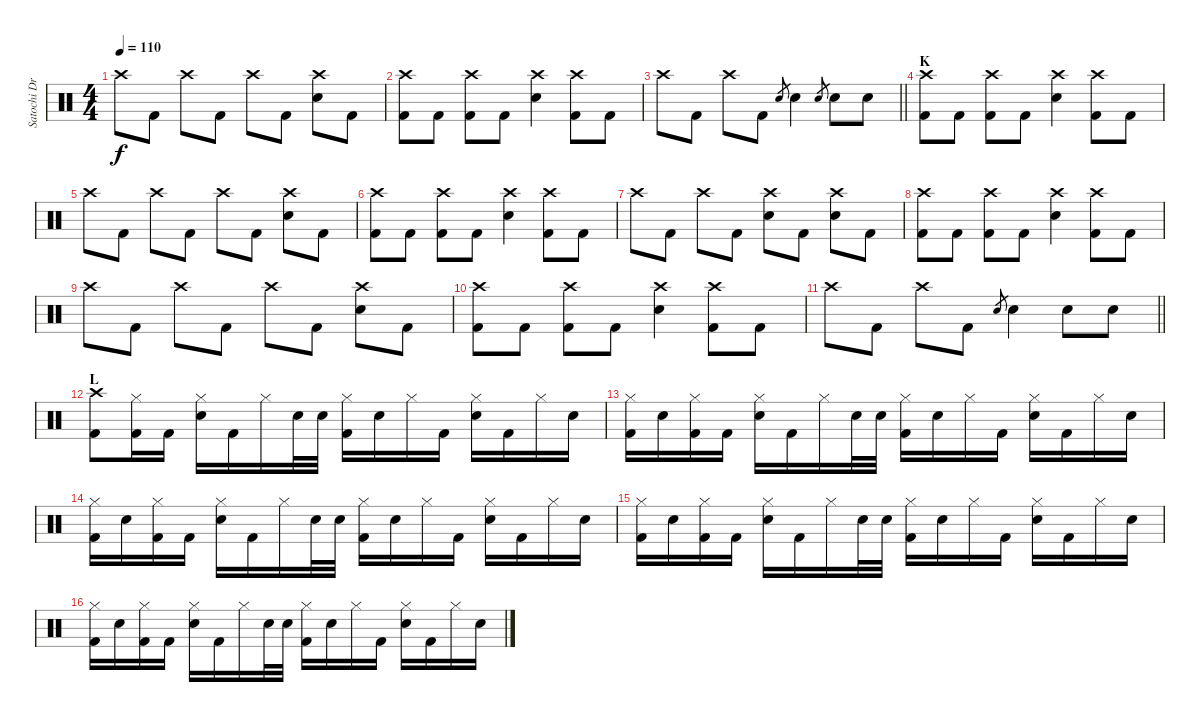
\track ("Satochi Drums" "Satochi Dr") {instrument percussion}
\staff {score}
\articulation defaults
\ts (4 4)
\tempo 110
\clef neutral
\ks c "Crash high (hit)".8{dy f} "Kick (hit) 2".8 "Crash high (hit)".8 "Kick (hit) 2".8 "Crash high (hit)".8 "Kick (hit) 2".8
("Crash high (hit)" "Snare (hit) 2").8 "Kick (hit) 2".8 |
("Crash high (hit)" "Kick (hit) 2").8 "Kick (hit) 2".8 ("Crash high (hit)" "Kick (hit) 2").8 "Kick (hit) 2".8 ("Crash high (hit)" "Snare (hit) 2").4 ("Crash high (hit)" "Kick (hit) 2").8 "Kick (hit) 2".8 |
\barLineRight lightlight "Crash high (hit)".8 "Kick (hit) 2".8 "Crash high (hit)".8 "Kick (hit) 2".8 "Snare (hit) 2".8{gr} "Snare (hit) 2".4 "Snare (hit) 2".8{gr} "Snare (hit) 2".8 "Snare (hit) 2".8
|
\section ("" "K")
("Crash high (hit)" "Kick (hit) 2").8 "Kick (hit) 2".8 ("Crash high (hit)" "Kick (hit) 2").8 "Kick (hit) 2".8 ("Crash high (hit)" "Snare (hit) 2").4 ("Crash high (hit)" "Kick (hit) 2").8 "Kick (hit) 2".8 |
"Crash high (hit)".8 "Kick (hit) 2".8 "Crash high (hit)".8 "Kick (hit) 2".8 "Crash high (hit)".8 "Kick (hit) 2".8 ("Crash high (hit)" "Snare (hit) 2").8 "Kick (hit) 2".8 |
("Crash high (hit)" "Kick (hit) 2").8 "Kick (hit) 2".8 ("Crash high (hit)" "Kick (hit) 2").8 "Kick (hit) 2".8 ("Crash high (hit)" "Snare (hit) 2").4 ("Crash high (hit)" "Kick (hit) 2").8 "Kick (hit) 2".8 |
"Crash high (hit)".8 "Kick (hit) 2".8 "Crash high (hit)".8 "Kick (hit) 2".8 ("Crash high (hit)" "Snare (hit) 2").8 "Kick (hit) 2".8 ("Crash high (hit)" "Snare (hit) 2").8 "Kick (hit) 2".8 |
("Crash high (hit)" "Kick (hit) 2").8 "Kick (hit) 2".8 ("Crash high (hit)" "Kick (hit) 2").8 "Kick (hit) 2".8 ("Crash high (hit)" "Snare (hit) 2").4 ("Crash high (hit)" "Kick (hit) 2").8 "Kick (hit) 2".8 |
"Crash high (hit)".8 "Kick (hit) 2".8 "Crash high (hit)".8 "Kick (hit) 2".8 "Crash high (hit)".8 "Kick (hit) 2".8 ("Crash high (hit)" "Snare (hit) 2").8 "Kick (hit) 2".8 |
("Crash high (hit)" "Kick (hit) 2").8 "Kick (hit) 2".8 ("Crash high (hit)" "Kick (hit) 2").8 "Kick (hit) 2".8 ("Crash high (hit)" "Snare (hit) 2").4 ("Crash high (hit)" "Kick (hit) 2").8 "Kick (hit) 2".8 |
\barLineRight lightlight "Crash high (hit)".8 "Kick (hit) 2".8 "Crash high (hit)".8 "Kick (hit) 2".8 "Snare (hit) 2".8{gr} "Snare (hit) 2".4 "Snare (hit) 2".8 "Snare (hit) 2".8
|
\section ("" "L")
("Crash high (hit)" "Kick (hit) 2").8 ("Hi-Hat (closed)" "Kick (hit) 2").16 "Kick (hit) 2".16 ("Hi-Hat (closed)" "Snare (hit) 2").16 "Kick (hit) 2".16 "Hi-Hat (closed)".16 "Snare (hit) 2".32 "Snare (hit) 2".32 ("Hi-Hat (closed)" "Kick (hit) 2").16 "Snare (hit) 2".16 "Hi-Hat (closed)".16 "Kick (hit) 2".16 ("Hi-Hat (closed)" "Snare (hit) 2").16 "Kick (hit) 2".16 "Hi-Hat (closed)".16 "Snare (hit) 2".16 |
("Hi-Hat (closed)" "Kick (hit) 2").16 "Snare (hit) 2".16 ("Hi-Hat (closed)" "Kick (hit) 2").16 "Kick (hit) 2".16 ("Hi-Hat (closed)" "Snare (hit) 2").16 "Kick (hit) 2".16 "Hi-Hat (closed)".16 "Snare (hit) 2".32 "Snare (hit) 2".32 ("Hi-Hat (closed)" "Kick (hit) 2").16 "Snare (hit) 2".16 "Hi-Hat (closed)".16 "Kick (hit) 2".16 ("Hi-Hat (closed)" "Snare (hit) 2").16 "Kick (hit) 2".16 "Hi-Hat (closed)".16 "Snare (hit) 2".16 |
("Hi-Hat (closed)" "Kick (hit) 2").16 "Snare (hit) 2".16 ("Hi-Hat (closed)" "Kick (hit) 2").16 "Kick (hit) 2".16 ("Hi-Hat (closed)" "Snare (hit) 2").16 "Kick (hit) 2".16 "Hi-Hat (closed)".16 "Snare (hit) 2".32 "Snare (hit) 2".32 ("Hi-Hat (closed)" "Kick (hit) 2").16 "Snare (hit) 2".16 "Hi-Hat (closed)".16 "Kick (hit) 2".16 ("Hi-Hat (closed)" "Snare (hit) 2").16 "Kick (hit) 2".16 "Hi-Hat (closed)".16 "Snare (hit) 2".16 |
("Hi-Hat (closed)" "Kick (hit) 2").16 "Snare (hit) 2".16 ("Hi-Hat (closed)" "Kick (hit) 2").16 "Kick (hit) 2".16 ("Hi-Hat (closed)" "Snare (hit) 2").16 "Kick (hit) 2".16 "Hi-Hat (closed)".16 "Snare (hit) 2".32 "Snare (hit) 2".32 ("Hi-Hat (closed)" "Kick (hit) 2").16 "Snare (hit) 2".16 "Hi-Hat (closed)".16 "Kick (hit) 2".16 ("Hi-Hat (closed)" "Snare (hit) 2").16 "Kick (hit) 2".16 "Hi-Hat (closed)".16 "Snare (hit) 2".16 |
("Hi-Hat (closed)" "Kick (hit) 2").16 "Snare (hit) 2".16 ("Hi-Hat (closed)" "Kick (hit) 2").16 "Kick (hit) 2".16 ("Hi-Hat (closed)" "Snare (hit) 2").16 "Kick (hit) 2".16 "Hi-Hat (closed)".16 "Snare (hit) 2".32 "Snare (hit) 2".32 ("Hi-Hat (closed)" "Kick (hit) 2").16 "Snare (hit) 2".16 "Hi-Hat (closed)".16 "Kick (hit) 2".16 ("Hi-Hat (closed)" "Snare (hit) 2").16 "Kick (hit) 2".16 "Hi-Hat (closed)".16 "Snare (hit) 2".16
